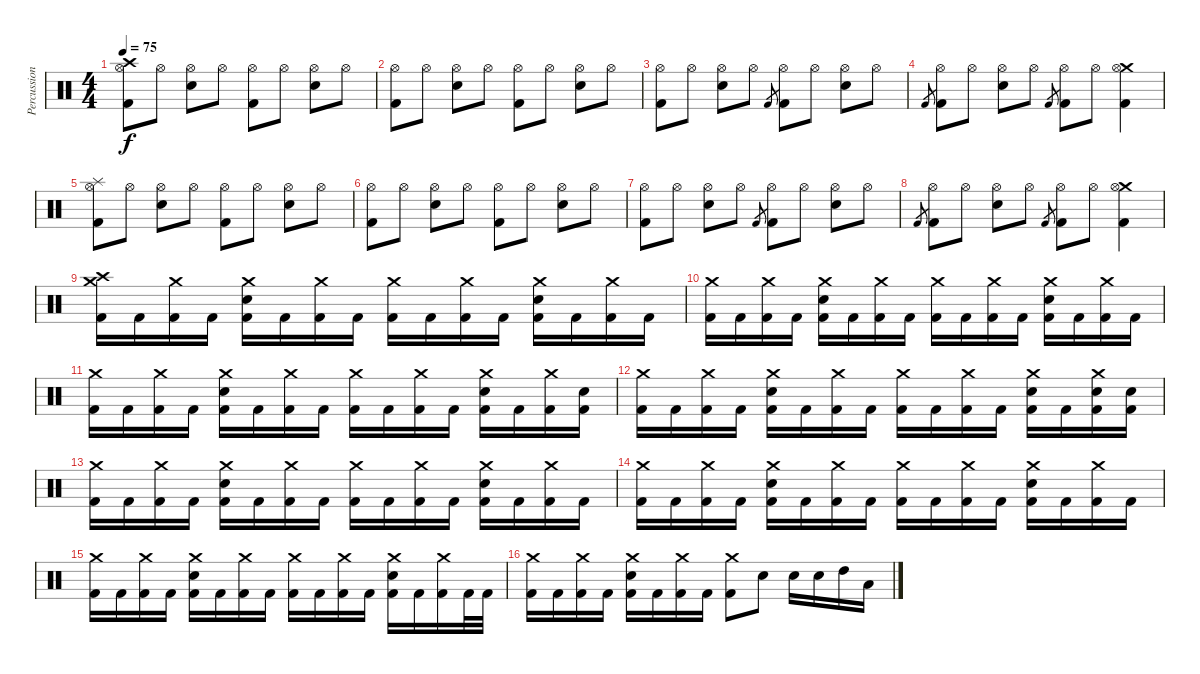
\track ("Percussions" "Percussion") {instrument percussion}
\staff {score}
\articulation defaults
\ts (4 4)
\tempo 75
\clef neutral
\ks c
("Crash high (hit)" "Hi-Hat (open)" "Kick (hit) 2").8{dy f} "Hi-Hat (open)".8 ("Hi-Hat (open)" "Snare (hit) 2").8 "Hi-Hat (open)".8 ("Hi-Hat (open)" "Kick (hit) 2").8 "Hi-Hat (open)".8 ("Hi-Hat (open)" "Snare (hit) 2").8 "Hi-Hat (open)".8 |
("Hi-Hat (open)" "Kick (hit) 2").8 "Hi-Hat (open)".8 ("Hi-Hat (open)" "Snare (hit) 2").8 "Hi-Hat (open)".8 ("Hi-Hat (open)" "Kick (hit) 2").8 "Hi-Hat (open)".8 ("Hi-Hat (open)" "Snare (hit) 2").8 "Hi-Hat (open)".8 |
("Hi-Hat (open)" "Kick (hit) 2").8 "Hi-Hat (open)".8 ("Hi-Hat (open)" "Snare (hit) 2").8 "Hi-Hat (open)".8 "Kick (hit) 2".8{gr} ("Hi-Hat (open)" "Kick (hit) 2").8 "Hi-Hat (open)".8 ("Hi-Hat (open)" "Snare (hit) 2").8 "Hi-Hat (open)".8 |
"Kick (hit) 2".8{gr} ("Hi-Hat (open)" "Kick (hit) 2").8 "Hi-Hat (open)".8 ("Hi-Hat (open)" "Snare (hit) 2").8 "Hi-Hat (open)".8 "Kick (hit) 2".8{gr} ("Hi-Hat (open)" "Kick (hit) 2").8 "Hi-Hat (open)".8 ("Crash medium (hit)" "Hi-Hat (open)" "Kick (hit) 2").4 |
("Splash (hit)" "Hi-Hat (open)" "Kick (hit) 2").8 "Hi-Hat (open)".8 ("Hi-Hat (open)" "Snare (hit) 2").8 "Hi-Hat (open)".8 ("Hi-Hat (open)" "Kick (hit) 2").8 "Hi-Hat (open)".8 ("Hi-Hat (open)" "Snare (hit) 2").8 "Hi-Hat (open)".8 |
("Hi-Hat (open)" "Kick (hit) 2").8 "Hi-Hat (open)".8 ("Hi-Hat (open)" "Snare (hit) 2").8 "Hi-Hat (open)".8 ("Hi-Hat (open)" "Kick (hit) 2").8 "Hi-Hat (open)".8 ("Hi-Hat (open)" "Snare (hit) 2").8 "Hi-Hat (open)".8 |
("Hi-Hat (open)" "Kick (hit) 2").8 "Hi-Hat (open)".8 ("Hi-Hat (open)" "Snare (hit) 2").8 "Hi-Hat (open)".8 "Kick (hit) 2".8{gr} ("Hi-Hat (open)" "Kick (hit) 2").8 "Hi-Hat (open)".8 ("Hi-Hat (open)" "Snare (hit) 2").8 "Hi-Hat (open)".8 |
"Kick (hit) 2".8{gr} ("Hi-Hat (open)" "Kick (hit) 2").8 "Hi-Hat (open)".8 ("Hi-Hat (open)" "Snare (hit) 2").8 "Hi-Hat (open)".8 "Kick (hit) 2".8{gr} ("Hi-Hat (open)" "Kick (hit) 2").8 "Hi-Hat (open)".8 ("Crash medium (hit)" "Hi-Hat (open)" "Kick (hit) 2").4 |
("Crash medium (hit)" "Crash high (hit)" "Kick (hit) 2").16 "Kick (hit) 2".16 ("Crash medium (hit)" "Kick (hit) 2").16 "Kick (hit) 2".16 ("Crash medium (hit)" "Snare (hit) 2" "Kick (hit) 2").16 "Kick (hit) 2".16 ("Crash medium (hit)" "Kick (hit) 2").16 "Kick (hit) 2".16 ("Crash medium (hit)" "Kick (hit) 2").16 "Kick (hit) 2".16 ("Crash medium (hit)" "Kick (hit) 2").16 "Kick (hit) 2".16 ("Crash medium (hit)" "Snare (hit) 2" "Kick (hit) 2").16 "Kick (hit) 2".16 ("Crash medium (hit)" "Kick (hit) 2").16 "Kick (hit) 2".16 |
("Crash medium (hit)" "Kick (hit) 2").16 "Kick (hit) 2".16 ("Crash medium (hit)" "Kick (hit) 2").16 "Kick (hit) 2".16 ("Crash medium (hit)" "Snare (hit) 2" "Kick (hit) 2").16 "Kick (hit) 2".16 ("Crash medium (hit)" "Kick (hit) 2").16 "Kick (hit) 2".16 ("Crash medium (hit)" "Kick (hit) 2").16 "Kick (hit) 2".16 ("Crash medium (hit)" "Kick (hit) 2").16 "Kick (hit) 2".16 ("Crash medium (hit)" "Snare (hit) 2" "Kick (hit) 2").16 "Kick (hit) 2".16 ("Crash medium (hit)" "Kick (hit) 2").16 "Kick (hit) 2".16 |
("Crash medium (hit)" "Kick (hit) 2").16 "Kick (hit) 2".16 ("Crash medium (hit)" "Kick (hit) 2").16 "Kick (hit) 2".16 ("Crash medium (hit)" "Snare (hit) 2" "Kick (hit) 2").16 "Kick (hit) 2".16 ("Crash medium (hit)" "Kick (hit) 2").16 "Kick (hit) 2".16 ("Crash medium (hit)" "Kick (hit) 2").16 "Kick (hit) 2".16 ("Crash medium (hit)" "Kick (hit) 2").16 "Kick (hit) 2".16 ("Crash medium (hit)" "Snare (hit) 2" "Kick (hit) 2").16 "Kick (hit) 2".16 ("Crash medium (hit)" "Kick (hit) 2").16 ("Snare (hit) 2" "Kick (hit) 2").16 |
("Crash medium (hit)" "Kick (hit) 2").16 "Kick (hit) 2".16 ("Crash medium (hit)" "Kick (hit) 2").16 "Kick (hit) 2".16 ("Crash medium (hit)" "Snare (hit) 2" "Kick (hit) 2").16 "Kick (hit) 2".16 ("Crash medium (hit)" "Kick (hit) 2").16 "Kick (hit) 2".16 ("Crash medium (hit)" "Kick (hit) 2").16 "Kick (hit) 2".16 ("Crash medium (hit)" "Kick (hit) 2").16 "Kick (hit) 2".16 ("Crash medium (hit)" "Snare (hit) 2" "Kick (hit) 2").16 "Kick (hit) 2".16 ("Crash medium (hit)" "Snare (hit) 2" "Kick (hit) 2").16 ("Snare (hit) 2" "Kick (hit) 2").16 |
("Crash medium (hit)" "Kick (hit) 2").16 "Kick (hit) 2".16 ("Crash medium (hit)" "Kick (hit) 2").16 "Kick (hit) 2".16 ("Crash medium (hit)" "Snare (hit) 2" "Kick (hit) 2").16 "Kick (hit) 2".16 ("Crash medium (hit)" "Kick (hit) 2").16 "Kick (hit) 2".16 ("Crash medium (hit)" "Kick (hit) 2").16 "Kick (hit) 2".16 ("Crash medium (hit)" "Kick (hit) 2").16 "Kick (hit) 2".16 ("Crash medium (hit)" "Snare (hit) 2" "Kick (hit) 2").16 "Kick (hit) 2".16 ("Crash medium (hit)" "Kick (hit) 2").16 "Kick (hit) 2".16 |
("Crash medium (hit)" "Kick (hit) 2").16 "Kick (hit) 2".16 ("Crash medium (hit)" "Kick (hit) 2").16 "Kick (hit) 2".16 ("Crash medium (hit)" "Snare (hit) 2" "Kick (hit) 2").16 "Kick (hit) 2".16 ("Crash medium (hit)" "Kick (hit) 2").16 "Kick (hit) 2".16 ("Crash medium (hit)" "Kick (hit) 2").16 "Kick (hit) 2".16 ("Crash medium (hit)" "Kick (hit) 2").16 "Kick (hit) 2".16 ("Crash medium (hit)" "Snare (hit) 2" "Kick (hit) 2").16 "Kick (hit) 2".16 ("Crash medium (hit)" "Kick (hit) 2").16 "Kick (hit) 2".16 |
("Crash medium (hit)" "Kick (hit) 2").16 "Kick (hit) 2".16 ("Crash medium (hit)" "Kick (hit) 2").16 "Kick (hit) 2".16 ("Crash medium (hit)" "Snare (hit) 2" "Kick (hit) 2").16 "Kick (hit) 2".16 ("Crash medium (hit)" "Kick (hit) 2").16 "Kick (hit) 2".16 ("Crash medium (hit)" "Kick (hit) 2").16 "Kick (hit) 2".16 ("Crash medium (hit)" "Kick (hit) 2").16 "Kick (hit) 2".16 ("Crash medium (hit)" "Snare (hit) 2" "Kick (hit) 2").16 "Kick (hit) 2".16 ("Crash medium (hit)" "Kick (hit) 2").16 "Kick (hit) 2".32 "Kick (hit) 2".32 |
("Crash medium (hit)" "Kick (hit) 2").16 "Kick (hit) 2".16 ("Crash medium (hit)" "Kick (hit) 2").16 "Kick (hit) 2".16 ("Crash medium (hit)" "Snare (hit) 2" "Kick (hit) 2").16 "Kick (hit) 2".16 ("Crash medium (hit)" "Kick (hit) 2").16 "Kick (hit) 2".16 ("Crash medium (hit)" "Kick (hit) 2").8 "Snare (hit) 2".8 "Snare (hit) 2".16 "Snare (hit) 2".16 "High Tom (hit)".16 "Low Tom (hit)".16
